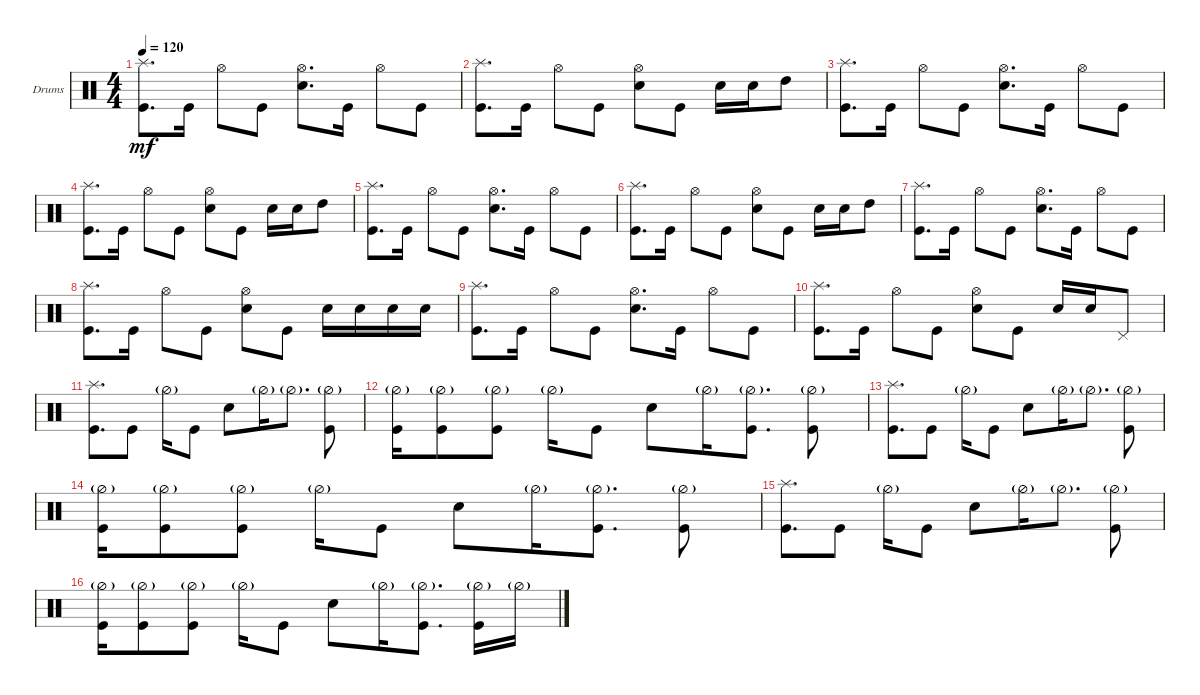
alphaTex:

\defaultSystemsLayout 4
\bracketExtendMode groupsimilarinstruments
\firstSystemTrackNameOrientation horizontal
\otherSystemsTrackNameOrientation horizontal
\track ("Kai" "Drums") {instrument percussion}
\staff {score}
\articulation defaults
\ts (4 4)
\tempo 120
\clef neutral
\ks c
("Kick (hit)" "Splash (hit)").8{d dy mf} "Kick (hit)".16 "Hi-Hat (open)".8 "Kick (hit)".8 ("Hi-Hat (open)" "Snare (hit) 2").8{d} "Kick (hit)".16 "Hi-Hat (open)".8 "Kick (hit)".8 |
("Kick (hit)" "Splash (hit)").8{d} "Kick (hit)".16 "Hi-Hat (open)".8 "Kick (hit)".8 ("Hi-Hat (open)" "Snare (hit) 2").8 "Kick (hit)".8 "Snare (hit) 2".16 "Snare (hit) 2".16 "High Tom (hit)".8 |
("Kick (hit)" "Splash (hit)").8{d} "Kick (hit)".16 "Hi-Hat (open)".8 "Kick (hit)".8 ("Hi-Hat (open)" "Snare (hit) 2").8{d} "Kick (hit)".16 "Hi-Hat (open)".8 "Kick (hit)".8 |
("Kick (hit)" "Splash (hit)").8{d} "Kick (hit)".16 "Hi-Hat (open)".8 "Kick (hit)".8 ("Hi-Hat (open)" "Snare (hit) 2").8 "Kick (hit)".8 "Snare (hit) 2".16 "Snare (hit) 2".16 "High Tom (hit)".8 |
("Kick (hit)" "Splash (hit)").8{d} "Kick (hit)".16 "Hi-Hat (open)".8 "Kick (hit)".8 ("Hi-Hat (open)" "Snare (hit) 2").8{d} "Kick (hit)".16 "Hi-Hat (open)".8 "Kick (hit)".8 |
("Kick (hit)" "Splash (hit)").8{d} "Kick (hit)".16 "Hi-Hat (open)".8 "Kick (hit)".8 ("Hi-Hat (open)" "Snare (hit) 2").8 "Kick (hit)".8 "Snare (hit) 2".16 "Snare (hit) 2".16 "High Tom (hit)".8 |
("Kick (hit)" "Splash (hit)").8{d} "Kick (hit)".16 "Hi-Hat (open)".8 "Kick (hit)".8 ("Hi-Hat (open)" "Snare (hit) 2").8{d} "Kick (hit)".16 "Hi-Hat (open)".8 "Kick (hit)".8 |
("Kick (hit)" "Splash (hit)").8{d} "Kick (hit)".16 "Hi-Hat (open)".8 "Kick (hit)".8 ("Hi-Hat (open)" "Snare (hit) 2").8 "Kick (hit)".8 "Snare (hit) 2".16 "Snare (hit) 2".16 "Snare (hit) 2".16 "Snare (hit) 2".16 |
("Kick (hit)" "Splash (hit)").8{d} "Kick (hit)".16 "Hi-Hat (open)".8 "Kick (hit)".8 ("Hi-Hat (open)" "Snare (hit) 2").8{d} "Kick (hit)".16 "Hi-Hat (open)".8 "Kick (hit)".8 |
("Kick (hit)" "Splash (hit)").8{d} "Kick (hit)".16 "Hi-Hat (open)".8 "Kick (hit)".8 ("Hi-Hat (open)" "Snare (hit) 2").8 "Kick (hit)".8 "Snare (hit) 2".16 "Snare (hit) 2".16 "Pedal Hi-Hat (hit)".8 |
("Kick (hit)" "Splash (hit)").8{d} "Kick (hit)".8 "Hi-Hat (half)"{g}.16 "Kick (hit)".8 "Snare (hit) 2".8 "Hi-Hat (half)"{g}.16 "Hi-Hat (half)"{g}.8{d} ("Kick (hit)" "Hi-Hat (half)"{g}).8 |
("Kick (hit)" "Hi-Hat (half)"{g}).16 ("Kick (hit)" "Hi-Hat (half)"{g}).8 ("Kick (hit)" "Hi-Hat (half)"{g}).8 "Hi-Hat (half)"{g}.16 "Kick (hit)".8 "Snare (hit) 2".8 "Hi-Hat (half)"{g}.16 ("Hi-Hat (half)"{g} "Kick (hit)").8{d} ("Kick (hit)" "Hi-Hat (half)"{g}).8 |
("Kick (hit)" "Splash (hit)").8{d} "Kick (hit)".8 "Hi-Hat (half)"{g}.16 "Kick (hit)".8 "Snare (hit) 2".8 "Hi-Hat (half)"{g}.16 "Hi-Hat (half)"{g}.8{d} ("Kick (hit)" "Hi-Hat (half)"{g}).8 |
("Kick (hit)" "Hi-Hat (half)"{g}).16 ("Kick (hit)" "Hi-Hat (half)"{g}).8 ("Kick (hit)" "Hi-Hat (half)"{g}).8 "Hi-Hat (half)"{g}.16 "Kick (hit)".8 "Snare (hit) 2".8 "Hi-Hat (half)"{g}.16 ("Hi-Hat (half)"{g} "Kick (hit)").8{d} ("Kick (hit)" "Hi-Hat (half)"{g}).8 |
("Kick (hit)" "Splash (hit)").8{d} "Kick (hit)".8 "Hi-Hat (half)"{g}.16 "Kick (hit)".8 "Snare (hit) 2".8 "Hi-Hat (half)"{g}.16 "Hi-Hat (half)"{g}.8{d} ("Kick (hit)" "Hi-Hat (half)"{g}).8 |
("Kick (hit)" "Hi-Hat (half)"{g}).16 ("Kick (hit)" "Hi-Hat (half)"{g}).8 ("Kick (hit)" "Hi-Hat (half)"{g}).8 "Hi-Hat (half)"{g}.16 "Kick (hit)".8 "Snare (hit) 2".8 "Hi-Hat (half)"{g}.16 ("Hi-Hat (half)"{g} "Kick (hit)").8{d} ("Kick (hit)" "Hi-Hat (half)"{g}).16 "Hi-Hat (half)"{g}.16
